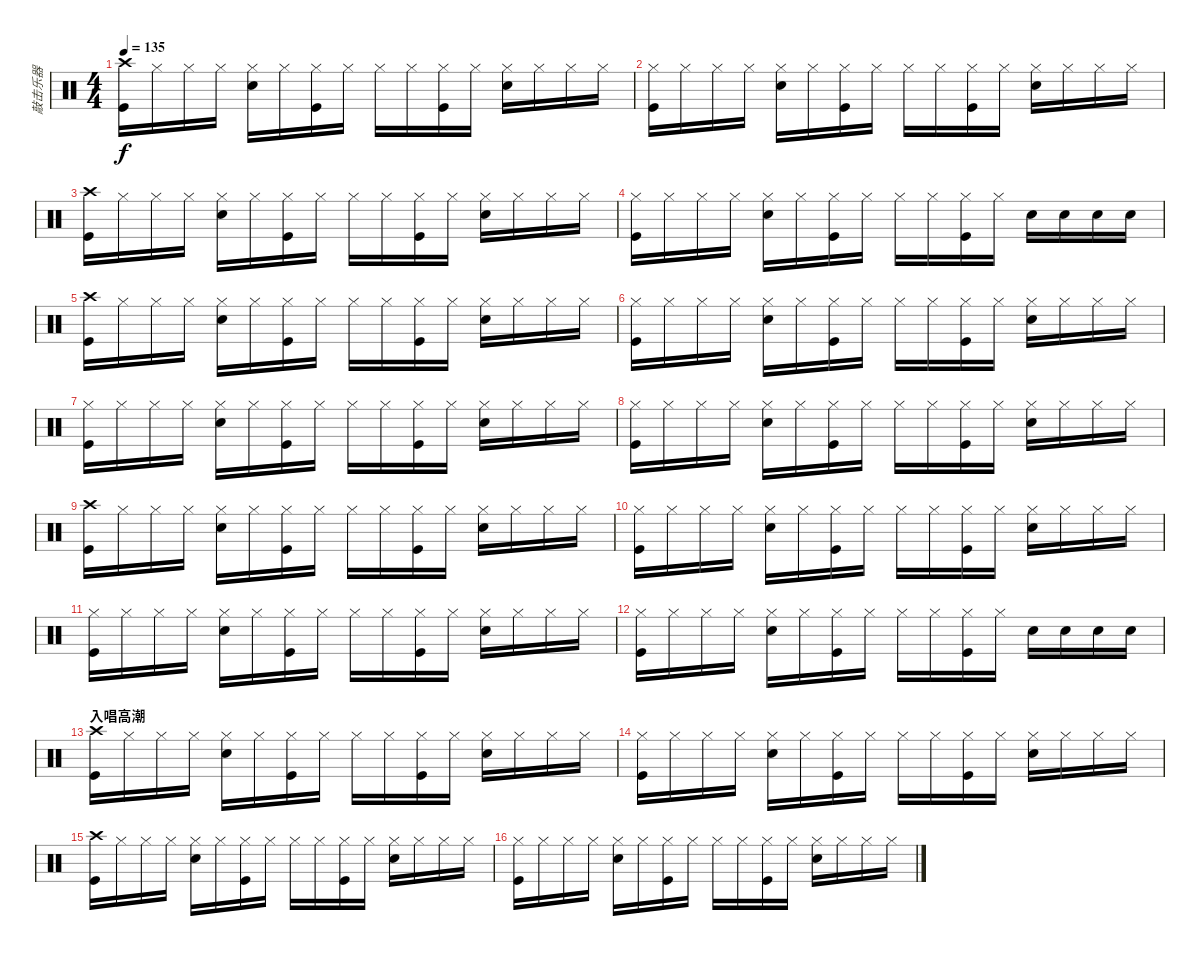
\track ("敲击乐器" "敲击乐器") {instrument percussion}
\staff {score}
\articulation defaults
\ts (4 4)
\tempo 135
\clef neutral
\ks c
("Crash high (hit)" "Kick (hit)").16{dy f} "Hi-Hat (closed)".16 "Hi-Hat (closed)".16 "Hi-Hat (closed)".16 ("Hi-Hat (closed)" "Snare (hit) 2").16 "Hi-Hat (closed)".16 ("Hi-Hat (closed)" "Kick (hit)").16 "Hi-Hat (closed)".16 "Hi-Hat (closed)".16 "Hi-Hat (closed)".16 ("Hi-Hat (closed)" "Kick (hit)").16 "Hi-Hat (closed)".16 ("Hi-Hat (closed)" "Snare (hit) 2").16 "Hi-Hat (closed)".16 "Hi-Hat (closed)".16 "Hi-Hat (closed)".16 |
("Hi-Hat (closed)" "Kick (hit)").16 "Hi-Hat (closed)".16 "Hi-Hat (closed)".16 "Hi-Hat (closed)".16 ("Hi-Hat (closed)" "Snare (hit) 2").16 "Hi-Hat (closed)".16 ("Hi-Hat (closed)" "Kick (hit)").16 "Hi-Hat (closed)".16 "Hi-Hat (closed)".16 "Hi-Hat (closed)".16 ("Hi-Hat (closed)" "Kick (hit)").16 "Hi-Hat (closed)".16 ("Hi-Hat (closed)" "Snare (hit) 2").16 "Hi-Hat (closed)".16 "Hi-Hat (closed)".16 "Hi-Hat (closed)".16 |
("Crash high (hit)" "Kick (hit)").16 "Hi-Hat (closed)".16 "Hi-Hat (closed)".16 "Hi-Hat (closed)".16 ("Hi-Hat (closed)" "Snare (hit) 2").16 "Hi-Hat (closed)".16 ("Hi-Hat (closed)" "Kick (hit)").16 "Hi-Hat (closed)".16 "Hi-Hat (closed)".16 "Hi-Hat (closed)".16 ("Hi-Hat (closed)" "Kick (hit)").16 "Hi-Hat (closed)".16 ("Hi-Hat (closed)" "Snare (hit) 2").16 "Hi-Hat (closed)".16 "Hi-Hat (closed)".16 "Hi-Hat (closed)".16 |
("Hi-Hat (closed)" "Kick (hit)").16 "Hi-Hat (closed)".16 "Hi-Hat (closed)".16 "Hi-Hat (closed)".16 ("Hi-Hat (closed)" "Snare (hit) 2").16 "Hi-Hat (closed)".16 ("Hi-Hat (closed)" "Kick (hit)").16 "Hi-Hat (closed)".16 "Hi-Hat (closed)".16 "Hi-Hat (closed)".16 ("Hi-Hat (closed)" "Kick (hit)").16 "Hi-Hat (closed)".16 "Snare (hit) 2".16 "Snare (hit) 2".16 "Snare (hit) 2".16 "Snare (hit) 2".16 |
("Crash high (hit)" "Kick (hit)").16 "Hi-Hat (closed)".16 "Hi-Hat (closed)".16 "Hi-Hat (closed)".16 ("Hi-Hat (closed)" "Snare (hit) 2").16 "Hi-Hat (closed)".16 ("Hi-Hat (closed)" "Kick (hit)").16 "Hi-Hat (closed)".16 "Hi-Hat (closed)".16 "Hi-Hat (closed)".16 ("Hi-Hat (closed)" "Kick (hit)").16 "Hi-Hat (closed)".16 ("Hi-Hat (closed)" "Snare (hit) 2").16 "Hi-Hat (closed)".16 "Hi-Hat (closed)".16 "Hi-Hat (closed)".16 |
("Hi-Hat (closed)" "Kick (hit)").16 "Hi-Hat (closed)".16 "Hi-Hat (closed)".16 "Hi-Hat (closed)".16 ("Hi-Hat (closed)" "Snare (hit) 2").16 "Hi-Hat (closed)".16 ("Hi-Hat (closed)" "Kick (hit)").16 "Hi-Hat (closed)".16 "Hi-Hat (closed)".16 "Hi-Hat (closed)".16 ("Hi-Hat (closed)" "Kick (hit)").16 "Hi-Hat (closed)".16 ("Hi-Hat (closed)" "Snare (hit) 2").16 "Hi-Hat (closed)".16 "Hi-Hat (closed)".16 "Hi-Hat (closed)".16 |
("Hi-Hat (closed)" "Kick (hit)").16 "Hi-Hat (closed)".16 "Hi-Hat (closed)".16 "Hi-Hat (closed)".16 ("Hi-Hat (closed)" "Snare (hit) 2").16 "Hi-Hat (closed)".16 ("Hi-Hat (closed)" "Kick (hit)").16 "Hi-Hat (closed)".16 "Hi-Hat (closed)".16 "Hi-Hat (closed)".16 ("Hi-Hat (closed)" "Kick (hit)").16 "Hi-Hat (closed)".16 ("Hi-Hat (closed)" "Snare (hit) 2").16 "Hi-Hat (closed)".16 "Hi-Hat (closed)".16 "Hi-Hat (closed)".16 |
("Hi-Hat (closed)" "Kick (hit)").16 "Hi-Hat (closed)".16 "Hi-Hat (closed)".16 "Hi-Hat (closed)".16 ("Hi-Hat (closed)" "Snare (hit) 2").16 "Hi-Hat (closed)".16 ("Hi-Hat (closed)" "Kick (hit)").16 "Hi-Hat (closed)".16 "Hi-Hat (closed)".16 "Hi-Hat (closed)".16 ("Hi-Hat (closed)" "Kick (hit)").16 "Hi-Hat (closed)".16 ("Hi-Hat (closed)" "Snare (hit) 2").16 "Hi-Hat (closed)".16 "Hi-Hat (closed)".16 "Hi-Hat (closed)".16 |
("Crash high (hit)" "Kick (hit)").16 "Hi-Hat (closed)".16 "Hi-Hat (closed)".16 "Hi-Hat (closed)".16 ("Hi-Hat (closed)" "Snare (hit) 2").16 "Hi-Hat (closed)".16 ("Hi-Hat (closed)" "Kick (hit)").16 "Hi-Hat (closed)".16 "Hi-Hat (closed)".16 "Hi-Hat (closed)".16 ("Hi-Hat (closed)" "Kick (hit)").16 "Hi-Hat (closed)".16 ("Hi-Hat (closed)" "Snare (hit) 2").16 "Hi-Hat (closed)".16 "Hi-Hat (closed)".16 "Hi-Hat (closed)".16 |
("Hi-Hat (closed)" "Kick (hit)").16 "Hi-Hat (closed)".16 "Hi-Hat (closed)".16 "Hi-Hat (closed)".16 ("Hi-Hat (closed)" "Snare (hit) 2").16 "Hi-Hat (closed)".16 ("Hi-Hat (closed)" "Kick (hit)").16 "Hi-Hat (closed)".16 "Hi-Hat (closed)".16 "Hi-Hat (closed)".16 ("Hi-Hat (closed)" "Kick (hit)").16 "Hi-Hat (closed)".16 ("Hi-Hat (closed)" "Snare (hit) 2").16 "Hi-Hat (closed)".16 "Hi-Hat (closed)".16 "Hi-Hat (closed)".16 |
("Hi-Hat (closed)" "Kick (hit)").16 "Hi-Hat (closed)".16 "Hi-Hat (closed)".16 "Hi-Hat (closed)".16 ("Hi-Hat (closed)" "Snare (hit) 2").16 "Hi-Hat (closed)".16 ("Hi-Hat (closed)" "Kick (hit)").16 "Hi-Hat (closed)".16 "Hi-Hat (closed)".16 "Hi-Hat (closed)".16 ("Hi-Hat (closed)" "Kick (hit)").16 "Hi-Hat (closed)".16 ("Hi-Hat (closed)" "Snare (hit) 2").16 "Hi-Hat (closed)".16 "Hi-Hat (closed)".16 "Hi-Hat (closed)".16 |
("Hi-Hat (closed)" "Kick (hit)").16 "Hi-Hat (closed)".16 "Hi-Hat (closed)".16 "Hi-Hat (closed)".16 ("Hi-Hat (closed)" "Snare (hit) 2").16 "Hi-Hat (closed)".16 ("Hi-Hat (closed)" "Kick (hit)").16 "Hi-Hat (closed)".16 "Hi-Hat (closed)".16 "Hi-Hat (closed)".16 ("Hi-Hat (closed)" "Kick (hit)").16 "Hi-Hat (closed)".16 "Snare (hit) 2".16 "Snare (hit) 2".16 "Snare (hit) 2".16 "Snare (hit) 2".16 |
\section ("" "入唱高潮")
("Crash high (hit)" "Kick (hit)").16 "Hi-Hat (closed)".16 "Hi-Hat (closed)".16 "Hi-Hat (closed)".16 ("Hi-Hat (closed)" "Snare (hit) 2").16 "Hi-Hat (closed)".16 ("Hi-Hat (closed)" "Kick (hit)").16 "Hi-Hat (closed)".16 "Hi-Hat (closed)".16 "Hi-Hat (closed)".16 ("Hi-Hat (closed)" "Kick (hit)").16 "Hi-Hat (closed)".16 ("Hi-Hat (closed)" "Snare (hit) 2").16 "Hi-Hat (closed)".16 "Hi-Hat (closed)".16 "Hi-Hat (closed)".16 |
("Hi-Hat (closed)" "Kick (hit)").16 "Hi-Hat (closed)".16 "Hi-Hat (closed)".16 "Hi-Hat (closed)".16 ("Hi-Hat (closed)" "Snare (hit) 2").16 "Hi-Hat (closed)".16 ("Hi-Hat (closed)" "Kick (hit)").16 "Hi-Hat (closed)".16 "Hi-Hat (closed)".16 "Hi-Hat (closed)".16 ("Hi-Hat (closed)" "Kick (hit)").16 "Hi-Hat (closed)".16 ("Hi-Hat (closed)" "Snare (hit) 2").16 "Hi-Hat (closed)".16 "Hi-Hat (closed)".16 "Hi-Hat (closed)".16 |
("Crash high (hit)" "Kick (hit)").16 "Hi-Hat (closed)".16 "Hi-Hat (closed)".16 "Hi-Hat (closed)".16 ("Hi-Hat (closed)" "Snare (hit) 2").16 "Hi-Hat (closed)".16 ("Hi-Hat (closed)" "Kick (hit)").16 "Hi-Hat (closed)".16 "Hi-Hat (closed)".16 "Hi-Hat (closed)".16 ("Hi-Hat (closed)" "Kick (hit)").16 "Hi-Hat (closed)".16 ("Hi-Hat (closed)" "Snare (hit) 2").16 "Hi-Hat (closed)".16 "Hi-Hat (closed)".16 "Hi-Hat (closed)".16 |
("Hi-Hat (closed)" "Kick (hit)").16 "Hi-Hat (closed)".16 "Hi-Hat (closed)".16 "Hi-Hat (closed)".16 ("Hi-Hat (closed)" "Snare (hit) 2").16 "Hi-Hat (closed)".16 ("Hi-Hat (closed)" "Kick (hit)").16 "Hi-Hat (closed)".16 "Hi-Hat (closed)".16 "Hi-Hat (closed)".16 ("Hi-Hat (closed)" "Kick (hit)").16 "Hi-Hat (closed)".16 ("Hi-Hat (closed)" "Snare (hit) 2").16 "Hi-Hat (closed)".16 "Hi-Hat (closed)".16 "Hi-Hat (closed)".16
